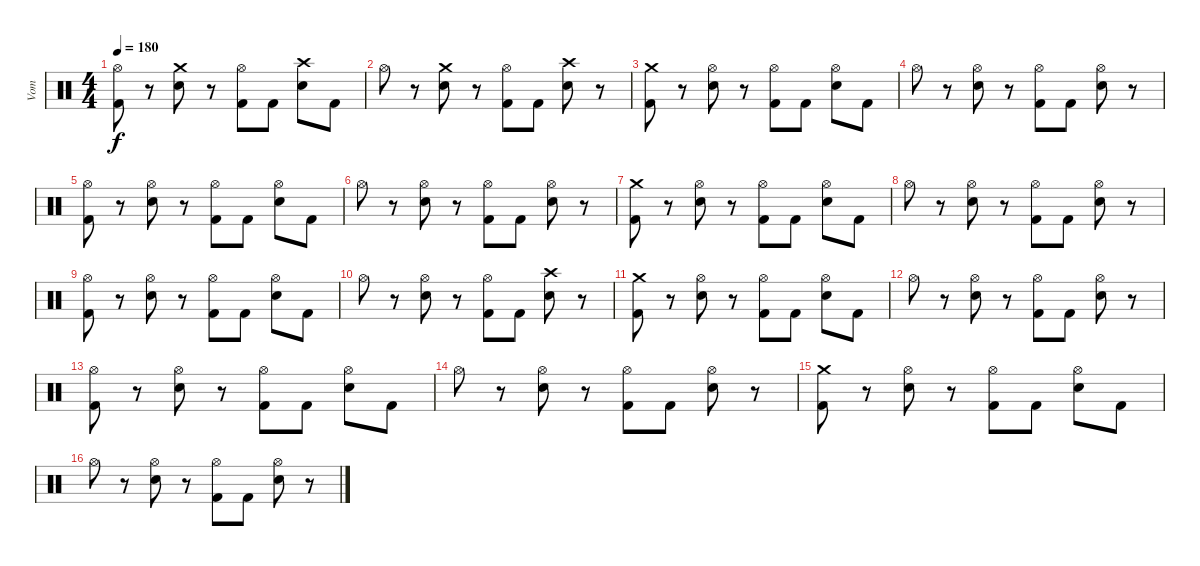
\track ("Vom" "Vom") {instrument percussion}
\staff {score}
\articulation defaults
\ts (4 4)
\tempo 180
\clef neutral
\ks c
("Hi-Hat (open)" "Kick (hit) 2").8{dy f} r.8 ("Crash medium (hit)" "Snare (hit) 2").8 r.8 ("Hi-Hat (open)" "Kick (hit) 2").8 "Kick (hit) 2".8 ("Crash high (hit)" "Snare (hit) 2").8 "Kick (hit) 2".8 |
"Hi-Hat (open)".8 r.8 ("Crash medium (hit)" "Snare (hit) 2").8 r.8 ("Hi-Hat (open)" "Kick (hit) 2").8 "Kick (hit) 2".8 ("Crash high (hit)" "Snare (hit) 2").8 r.8 |
("Crash medium (hit)" "Kick (hit) 2").8 r.8 ("Hi-Hat (open)" "Snare (hit) 2").8 r.8 ("Hi-Hat (open)" "Kick (hit) 2").8 "Kick (hit) 2".8 ("Hi-Hat (open)" "Snare (hit) 2").8 "Kick (hit) 2".8 |
"Hi-Hat (open)".8 r.8 ("Hi-Hat (open)" "Snare (hit) 2").8 r.8 ("Hi-Hat (open)" "Kick (hit) 2").8 "Kick (hit) 2".8 ("Hi-Hat (open)" "Snare (hit) 2").8 r.8 |
("Hi-Hat (open)" "Kick (hit) 2").8 r.8 ("Hi-Hat (open)" "Snare (hit) 2").8 r.8 ("Hi-Hat (open)" "Kick (hit) 2").8 "Kick (hit) 2".8 ("Hi-Hat (open)" "Snare (hit) 2").8 "Kick (hit) 2".8 |
"Hi-Hat (open)".8 r.8 ("Hi-Hat (open)" "Snare (hit) 2").8 r.8 ("Hi-Hat (open)" "Kick (hit) 2").8 "Kick (hit) 2".8 ("Hi-Hat (open)" "Snare (hit) 2").8 r.8 |
("Crash medium (hit)" "Kick (hit) 2").8 r.8 ("Hi-Hat (open)" "Snare (hit) 2").8 r.8 ("Hi-Hat (open)" "Kick (hit) 2").8 "Kick (hit) 2".8 ("Hi-Hat (open)" "Snare (hit) 2").8 "Kick (hit) 2".8 |
"Hi-Hat (open)".8 r.8 ("Hi-Hat (open)" "Snare (hit) 2").8 r.8 ("Hi-Hat (open)" "Kick (hit) 2").8 "Kick (hit) 2".8 ("Hi-Hat (open)" "Snare (hit) 2").8 r.8 |
("Hi-Hat (open)" "Kick (hit) 2").8 r.8 ("Hi-Hat (open)" "Snare (hit) 2").8 r.8 ("Hi-Hat (open)" "Kick (hit) 2").8 "Kick (hit) 2".8 ("Hi-Hat (open)" "Snare (hit) 2").8 "Kick (hit) 2".8 |
"Hi-Hat (open)".8 r.8 ("Hi-Hat (open)" "Snare (hit) 2").8 r.8 ("Hi-Hat (open)" "Kick (hit) 2").8 "Kick (hit) 2".8 ("Crash high (hit)" "Snare (hit) 2").8 r.8 |
("Crash medium (hit)" "Kick (hit) 2").8 r.8 ("Hi-Hat (open)" "Snare (hit) 2").8 r.8 ("Hi-Hat (open)" "Kick (hit) 2").8 "Kick (hit) 2".8 ("Hi-Hat (open)" "Snare (hit) 2").8 "Kick (hit) 2".8 |
"Hi-Hat (open)".8 r.8 ("Hi-Hat (open)" "Snare (hit) 2").8 r.8 ("Hi-Hat (open)" "Kick (hit) 2").8 "Kick (hit) 2".8 ("Hi-Hat (open)" "Snare (hit) 2").8 r.8 |
("Hi-Hat (open)" "Kick (hit) 2").8 r.8 ("Hi-Hat (open)" "Snare (hit) 2").8 r.8 ("Hi-Hat (open)" "Kick (hit) 2").8 "Kick (hit) 2".8 ("Hi-Hat (open)" "Snare (hit) 2").8 "Kick (hit) 2".8 |
"Hi-Hat (open)".8 r.8 ("Hi-Hat (open)" "Snare (hit) 2").8 r.8 ("Hi-Hat (open)" "Kick (hit) 2").8 "Kick (hit) 2".8 ("Hi-Hat (open)" "Snare (hit) 2").8 r.8 |
("Crash medium (hit)" "Kick (hit) 2").8 r.8 ("Hi-Hat (open)" "Snare (hit) 2").8 r.8 ("Hi-Hat (open)" "Kick (hit) 2").8 "Kick (hit) 2".8 ("Hi-Hat (open)" "Snare (hit) 2").8 "Kick (hit) 2".8 |
"Hi-Hat (open)".8 r.8 ("Hi-Hat (open)" "Snare (hit) 2").8 r.8 ("Hi-Hat (open)" "Kick (hit) 2").8 "Kick (hit) 2".8 ("Hi-Hat (open)" "Snare (hit) 2").8 r.8
